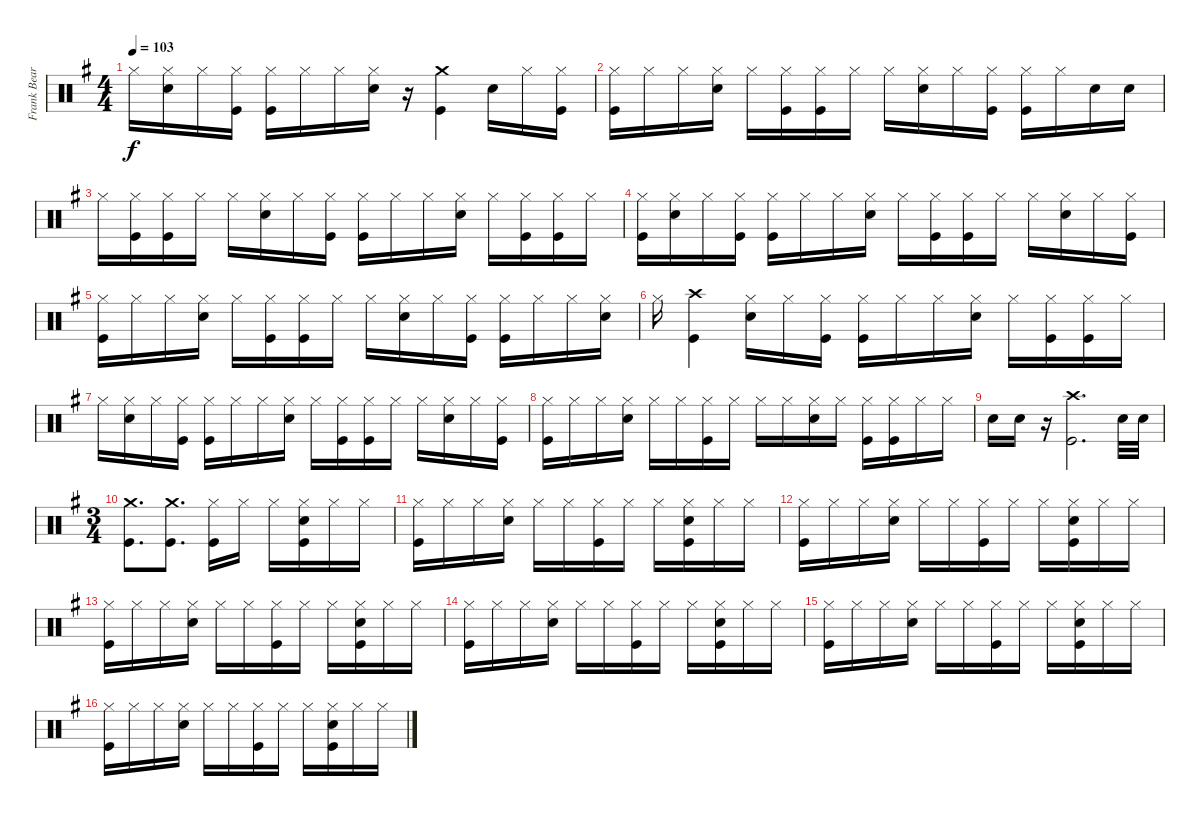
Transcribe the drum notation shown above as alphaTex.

\track ("Frank Beard Drums" "Frank Bear") {instrument percussion}
\staff {score}
\articulation defaults
\ts (4 4)
\tempo 103
\clef neutral
\ks g "Hi-Hat (closed)".16{dy f}
("Hi-Hat (closed)" "Snare (hit) 2").16 "Hi-Hat (closed)".16 ("Hi-Hat (closed)" "Kick (hit)").16 ("Hi-Hat (closed)" "Kick (hit)").16 "Hi-Hat (closed)".16 "Hi-Hat (closed)".16 ("Hi-Hat (closed)" "Snare (hit) 2").16 r.16 ("Crash medium (hit)" "Kick (hit)").4 "Snare (hit) 2".16 "Hi-Hat (closed)".16 ("Hi-Hat (closed)" "Kick (hit)").16 |
("Hi-Hat (closed)" "Kick (hit)").16 "Hi-Hat (closed)".16 "Hi-Hat (closed)".16 ("Hi-Hat (closed)" "Snare (hit) 2").16 "Hi-Hat (closed)".16 ("Hi-Hat (closed)" "Kick (hit)").16 ("Hi-Hat (closed)" "Kick (hit)").16 "Hi-Hat (closed)".16 "Hi-Hat (closed)".16 ("Hi-Hat (closed)" "Snare (hit) 2").16 "Hi-Hat (closed)".16 ("Hi-Hat (closed)" "Kick (hit)").16 ("Hi-Hat (closed)" "Kick (hit)").16 "Hi-Hat (closed)".16 "Snare (hit) 2".16 "Snare (hit) 2".16 |
"Hi-Hat (closed)".16 ("Hi-Hat (closed)" "Kick (hit)").16 ("Hi-Hat (closed)" "Kick (hit)").16 "Hi-Hat (closed)".16 "Hi-Hat (closed)".16 ("Hi-Hat (closed)" "Snare (hit) 2").16 "Hi-Hat (closed)".16 ("Hi-Hat (closed)" "Kick (hit)").16 ("Hi-Hat (closed)" "Kick (hit)").16 "Hi-Hat (closed)".16 "Hi-Hat (closed)".16 ("Hi-Hat (closed)" "Snare (hit) 2").16 "Hi-Hat (closed)".16 ("Hi-Hat (closed)" "Kick (hit)").16 ("Hi-Hat (closed)" "Kick (hit)").16 "Hi-Hat (closed)".16 |
("Hi-Hat (closed)" "Kick (hit)").16 ("Hi-Hat (closed)" "Snare (hit) 2").16 "Hi-Hat (closed)".16 ("Hi-Hat (closed)" "Kick (hit)").16 ("Hi-Hat (closed)" "Kick (hit)").16 "Hi-Hat (closed)".16 "Hi-Hat (closed)".16 ("Hi-Hat (closed)" "Snare (hit) 2").16 "Hi-Hat (closed)".16 ("Hi-Hat (closed)" "Kick (hit)").16 ("Hi-Hat (closed)" "Kick (hit)").16 "Hi-Hat (closed)".16 "Hi-Hat (closed)".16 ("Hi-Hat (closed)" "Snare (hit) 2").16 "Hi-Hat (closed)".16 ("Hi-Hat (closed)" "Kick (hit)").16 |
("Hi-Hat (closed)" "Kick (hit)").16 "Hi-Hat (closed)".16 "Hi-Hat (closed)".16 ("Hi-Hat (closed)" "Snare (hit) 2").16 "Hi-Hat (closed)".16 ("Hi-Hat (closed)" "Kick (hit)").16 ("Hi-Hat (closed)" "Kick (hit)").16 "Hi-Hat (closed)".16 "Hi-Hat (closed)".16 ("Hi-Hat (closed)" "Snare (hit) 2").16 "Hi-Hat (closed)".16 ("Hi-Hat (closed)" "Kick (hit)").16 ("Hi-Hat (closed)" "Kick (hit)").16 "Hi-Hat (closed)".16 "Hi-Hat (closed)".16 ("Hi-Hat (closed)" "Snare (hit) 2").16 |
"Hi-Hat (closed)".16 ("Crash high (hit)" "Kick (hit)").4 ("Hi-Hat (closed)" "Snare (hit) 2").16 "Hi-Hat (closed)".16 ("Hi-Hat (closed)" "Kick (hit)").16 ("Hi-Hat (closed)" "Kick (hit)").16 "Hi-Hat (closed)".16 "Hi-Hat (closed)".16 ("Hi-Hat (closed)" "Snare (hit) 2").16 "Hi-Hat (closed)".16 ("Hi-Hat (closed)" "Kick (hit)").16 ("Hi-Hat (closed)" "Kick (hit)").16 "Hi-Hat (closed)".16 |
"Hi-Hat (closed)".16 ("Hi-Hat (closed)" "Snare (hit) 2").16 "Hi-Hat (closed)".16 ("Hi-Hat (closed)" "Kick (hit)").16 ("Hi-Hat (closed)" "Kick (hit)").16 "Hi-Hat (closed)".16 "Hi-Hat (closed)".16 ("Hi-Hat (closed)" "Snare (hit) 2").16 "Hi-Hat (closed)".16 ("Hi-Hat (closed)" "Kick (hit)").16 ("Hi-Hat (closed)" "Kick (hit)").16 "Hi-Hat (closed)".16 "Hi-Hat (closed)".16 ("Hi-Hat (closed)" "Snare (hit) 2").16 "Hi-Hat (closed)".16 ("Hi-Hat (closed)" "Kick (hit)").16 |
("Hi-Hat (closed)" "Kick (hit)").16 "Hi-Hat (closed)".16 "Hi-Hat (closed)".16 ("Hi-Hat (closed)" "Snare (hit) 2").16 "Hi-Hat (closed)".16 "Hi-Hat (closed)".16 ("Hi-Hat (closed)" "Kick (hit)").16 "Hi-Hat (closed)".16 "Hi-Hat (closed)".16 "Hi-Hat (closed)".16 ("Hi-Hat (closed)" "Snare (hit) 2").16 "Hi-Hat (closed)".16 ("Hi-Hat (closed)" "Kick (hit)").16 ("Hi-Hat (closed)" "Kick (hit)").16 "Hi-Hat (closed)".16 "Hi-Hat (closed)".16 |
"Snare (hit) 2".16 "Snare (hit) 2".16 r.16 ("Crash high (hit)" "Kick (hit)").2{d} "Snare (hit) 2".32 "Snare (hit) 2".32 |
\ts (3 4)
("Crash medium (hit)" "Kick (hit)").8{d} ("Crash medium (hit)" "Kick (hit)").8{d} ("Hi-Hat (closed)" "Kick (hit)").16 "Hi-Hat (closed)".16 "Hi-Hat (closed)".16 ("Hi-Hat (closed)" "Snare (hit) 2" "Kick (hit)").16 "Hi-Hat (closed)".16 "Hi-Hat (closed)".16 |
("Hi-Hat (closed)" "Kick (hit)").16 "Hi-Hat (closed)".16 "Hi-Hat (closed)".16 ("Hi-Hat (closed)" "Snare (hit) 2").16 "Hi-Hat (closed)".16 "Hi-Hat (closed)".16 ("Hi-Hat (closed)" "Kick (hit)").16 "Hi-Hat (closed)".16 "Hi-Hat (closed)".16 ("Hi-Hat (closed)" "Snare (hit) 2" "Kick (hit)").16 "Hi-Hat (closed)".16 "Hi-Hat (closed)".16 |
("Hi-Hat (closed)" "Kick (hit)").16 "Hi-Hat (closed)".16 "Hi-Hat (closed)".16 ("Hi-Hat (closed)" "Snare (hit) 2").16 "Hi-Hat (closed)".16 "Hi-Hat (closed)".16 ("Hi-Hat (closed)" "Kick (hit)").16 "Hi-Hat (closed)".16 "Hi-Hat (closed)".16 ("Hi-Hat (closed)" "Snare (hit) 2" "Kick (hit)").16 "Hi-Hat (closed)".16 "Hi-Hat (closed)".16 |
("Hi-Hat (closed)" "Kick (hit)").16 "Hi-Hat (closed)".16 "Hi-Hat (closed)".16 ("Hi-Hat (closed)" "Snare (hit) 2").16 "Hi-Hat (closed)".16 "Hi-Hat (closed)".16 ("Hi-Hat (closed)" "Kick (hit)").16 "Hi-Hat (closed)".16 "Hi-Hat (closed)".16 ("Hi-Hat (closed)" "Snare (hit) 2" "Kick (hit)").16 "Hi-Hat (closed)".16 "Hi-Hat (closed)".16 |
("Hi-Hat (closed)" "Kick (hit)").16 "Hi-Hat (closed)".16 "Hi-Hat (closed)".16 ("Hi-Hat (closed)" "Snare (hit) 2").16 "Hi-Hat (closed)".16 "Hi-Hat (closed)".16 ("Hi-Hat (closed)" "Kick (hit)").16 "Hi-Hat (closed)".16 "Hi-Hat (closed)".16 ("Hi-Hat (closed)" "Snare (hit) 2" "Kick (hit)").16 "Hi-Hat (closed)".16 "Hi-Hat (closed)".16 |
("Hi-Hat (closed)" "Kick (hit)").16 "Hi-Hat (closed)".16 "Hi-Hat (closed)".16 ("Hi-Hat (closed)" "Snare (hit) 2").16 "Hi-Hat (closed)".16 "Hi-Hat (closed)".16 ("Hi-Hat (closed)" "Kick (hit)").16 "Hi-Hat (closed)".16 "Hi-Hat (closed)".16 ("Hi-Hat (closed)" "Snare (hit) 2" "Kick (hit)").16 "Hi-Hat (closed)".16 "Hi-Hat (closed)".16 |
("Hi-Hat (closed)" "Kick (hit)").16 "Hi-Hat (closed)".16 "Hi-Hat (closed)".16 ("Hi-Hat (closed)" "Snare (hit) 2").16 "Hi-Hat (closed)".16 "Hi-Hat (closed)".16 ("Hi-Hat (closed)" "Kick (hit)").16 "Hi-Hat (closed)".16 "Hi-Hat (closed)".16 ("Hi-Hat (closed)" "Snare (hit) 2" "Kick (hit)").16 "Hi-Hat (closed)".16 "Hi-Hat (closed)".16
